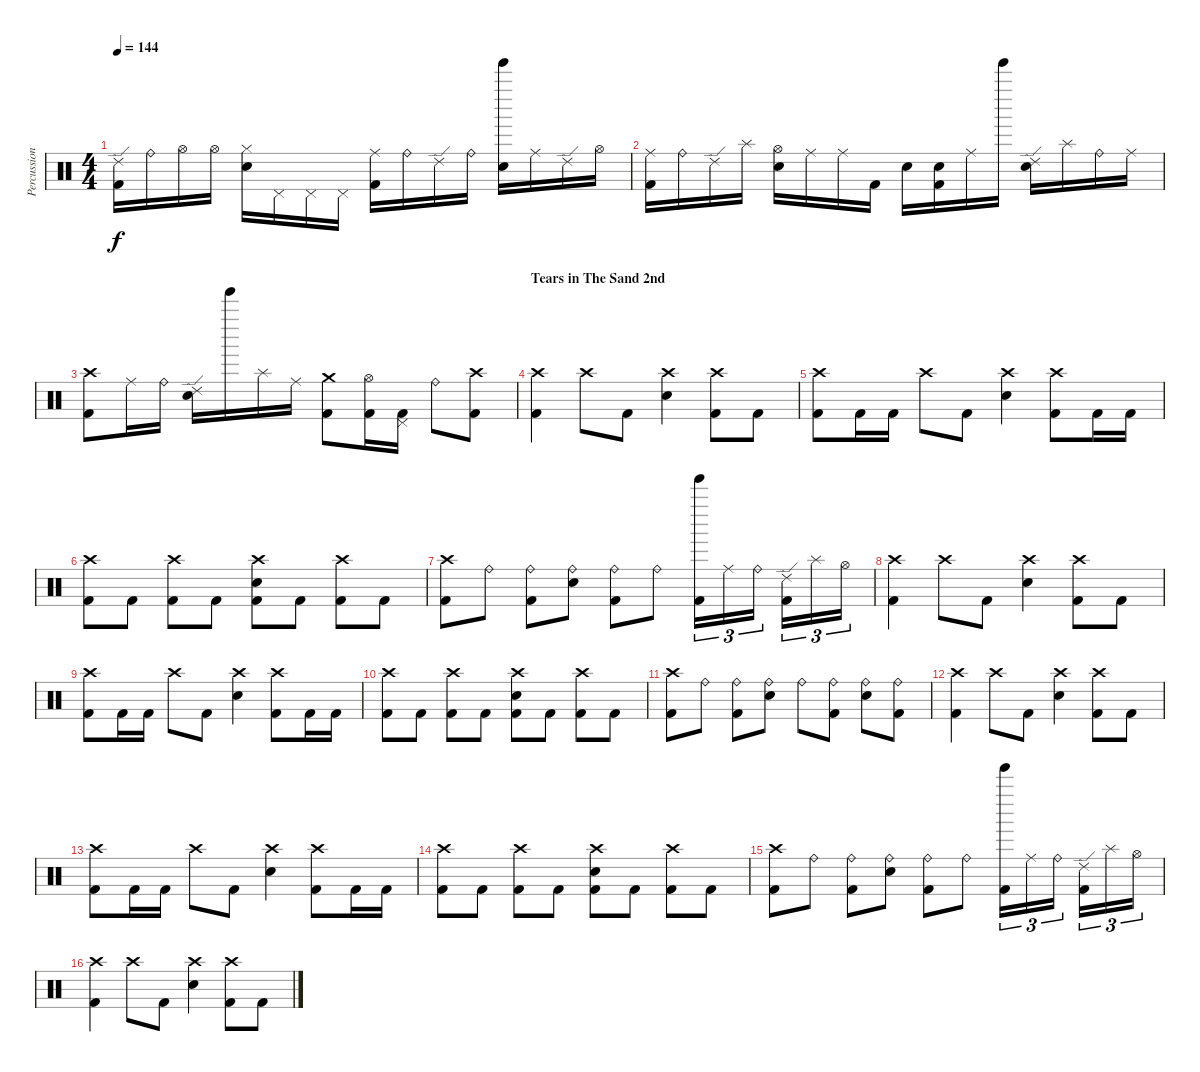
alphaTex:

\track ("Percussion" "Percussion") {instrument percussion}
\staff {score}
\articulation defaults
\ts (4 4)
\tempo 144
\clef neutral
\ks c
("Ride (edge) 2" "Kick (hit) 2").16{dy f} "Ride (bell)".16 "Hi-Hat (open)".16 "Hi-Hat (open)".16 ("Hi-Hat (closed)" "Electric Snare (hit)").16 "Pedal Hi-Hat (hit)".16 "Pedal Hi-Hat (hit)".16 "Pedal Hi-Hat (hit)".16 ("Ride (middle)" "Kick (hit) 2").16 "Ride (bell)".16 "Ride (edge) 2".16 "Ride (bell)".16 ("Tinkle Bell (hit)" "Electric Snare (hit)").16 "Ride (middle)".16 "Ride (edge) 2".16 "Hi-Hat (open)".16 |
("Ride (middle)" "Kick (hit) 2").16 "Ride (bell)".16 "Ride (edge) 2".16 "Splash (hit)".16 ("Hi-Hat (open)" "Electric Snare (hit)").16 "Ride (middle)".16 "Ride (middle)".16 "Kick (hit) 2".16 "Electric Snare (hit)".16 ("Electric Snare (hit)" "Kick (hit) 2").16 "Ride (middle)".16 "Tinkle Bell (hit)".16 ("Ride (edge) 2" "Electric Snare (hit)").16 "Splash (hit)".16 "Ride (bell)".16 "Ride (middle)".16 |
("Crash high (hit)" "Kick (hit) 2").8 "Ride (middle)".16 "Ride (bell)".16 ("Ride (edge) 2" "Electric Snare (hit)").16 "Tinkle Bell (hit)".16 "Splash (hit)".16 "Ride (middle)".16 ("Crash medium (hit)" "Kick (hit) 2").8 ("Hi-Hat (open)" "Kick (hit) 2").16 ("Pedal Hi-Hat (hit)" "Kick (hit) 2").16 "Ride (bell)".8 ("Crash high (hit)" "Kick (hit) 2").8 |
\section ("" "Tears in The Sand 2nd")
("Crash high (hit)" "Kick (hit) 2").4 "Crash high (hit)".8 "Kick (hit) 2".8 ("Crash high (hit)" "Electric Snare (hit)").4 ("Crash high (hit)" "Kick (hit) 2").8 "Kick (hit) 2".8 |
("Crash high (hit)" "Kick (hit) 2").8 "Kick (hit) 2".16 "Kick (hit) 2".16 "Crash high (hit)".8 "Kick (hit) 2".8 ("Crash high (hit)" "Electric Snare (hit)").4 ("Crash high (hit)" "Kick (hit) 2").8 "Kick (hit) 2".16 "Kick (hit) 2".16 |
("Crash high (hit)" "Kick (hit) 2").8 "Kick (hit) 2".8 ("Crash high (hit)" "Kick (hit) 2").8 "Kick (hit) 2".8 ("Crash high (hit)" "Electric Snare (hit)" "Kick (hit) 2").8 "Kick (hit) 2".8 ("Crash high (hit)" "Kick (hit) 2").8 "Kick (hit) 2".8 |
("Crash high (hit)" "Kick (hit) 2").8 "Ride (bell)".8 ("Ride (bell)" "Kick (hit) 2").8 ("Ride (bell)" "Electric Snare (hit)").8 ("Ride (bell)" "Kick (hit) 2").8 "Ride (bell)".8 ("Tinkle Bell (hit)" "Kick (hit) 2").16{tu (3 2)} "Ride (middle)".16{tu (3 2)} "Ride (bell)".16{tu (3 2)} ("Ride (edge) 2" "Kick (hit) 2").16{tu (3 2)} "Splash (hit)".16{tu (3 2)} "Hi-Hat (open)".16{tu (3 2)} |
("Crash high (hit)" "Kick (hit) 2").4 "Crash high (hit)".8 "Kick (hit) 2".8 ("Crash high (hit)" "Electric Snare (hit)").4 ("Crash high (hit)" "Kick (hit) 2").8 "Kick (hit) 2".8 |
("Crash high (hit)" "Kick (hit) 2").8 "Kick (hit) 2".16 "Kick (hit) 2".16 "Crash high (hit)".8 "Kick (hit) 2".8 ("Crash high (hit)" "Electric Snare (hit)").4 ("Crash high (hit)" "Kick (hit) 2").8 "Kick (hit) 2".16 "Kick (hit) 2".16 |
("Crash high (hit)" "Kick (hit) 2").8 "Kick (hit) 2".8 ("Crash high (hit)" "Kick (hit) 2").8 "Kick (hit) 2".8 ("Crash high (hit)" "Electric Snare (hit)" "Kick (hit) 2").8 "Kick (hit) 2".8 ("Crash high (hit)" "Kick (hit) 2").8 "Kick (hit) 2".8 |
("Crash high (hit)" "Kick (hit) 2").8 "Ride (bell)".8 ("Ride (bell)" "Kick (hit) 2").8 ("Ride (bell)" "Electric Snare (hit)").8 "Ride (bell)".8 ("Ride (bell)" "Kick (hit) 2").8 ("Ride (bell)" "Electric Snare (hit)").8 ("Ride (bell)" "Kick (hit) 2").8 |
("Crash high (hit)" "Kick (hit) 2").4 "Crash high (hit)".8 "Kick (hit) 2".8 ("Crash high (hit)" "Electric Snare (hit)").4 ("Crash high (hit)" "Kick (hit) 2").8 "Kick (hit) 2".8 |
("Crash high (hit)" "Kick (hit) 2").8 "Kick (hit) 2".16 "Kick (hit) 2".16 "Crash high (hit)".8 "Kick (hit) 2".8 ("Crash high (hit)" "Electric Snare (hit)").4 ("Crash high (hit)" "Kick (hit) 2").8 "Kick (hit) 2".16 "Kick (hit) 2".16 |
("Crash high (hit)" "Kick (hit) 2").8 "Kick (hit) 2".8 ("Crash high (hit)" "Kick (hit) 2").8 "Kick (hit) 2".8 ("Crash high (hit)" "Electric Snare (hit)" "Kick (hit) 2").8 "Kick (hit) 2".8 ("Crash high (hit)" "Kick (hit) 2").8 "Kick (hit) 2".8 |
("Crash high (hit)" "Kick (hit) 2").8 "Ride (bell)".8 ("Ride (bell)" "Kick (hit) 2").8 ("Ride (bell)" "Electric Snare (hit)").8 ("Ride (bell)" "Kick (hit) 2").8 "Ride (bell)".8 ("Tinkle Bell (hit)" "Kick (hit) 2").16{tu (3 2)} "Ride (middle)".16{tu (3 2)} "Ride (bell)".16{tu (3 2)} ("Ride (edge) 2" "Kick (hit) 2").16{tu (3 2)} "Splash (hit)".16{tu (3 2)} "Hi-Hat (open)".16{tu (3 2)} |
("Crash high (hit)" "Kick (hit) 2").4 "Crash high (hit)".8 "Kick (hit) 2".8 ("Crash high (hit)" "Electric Snare (hit)").4 ("Crash high (hit)" "Kick (hit) 2").8 "Kick (hit) 2".8
